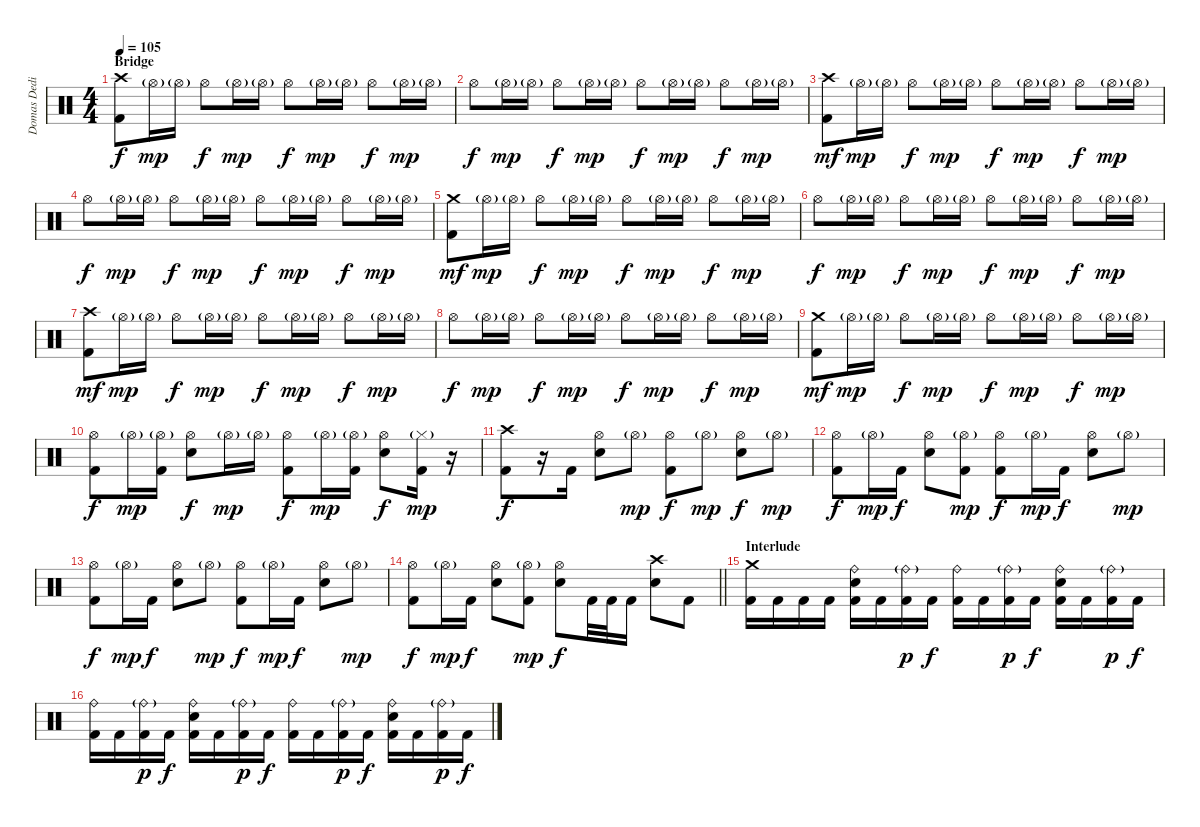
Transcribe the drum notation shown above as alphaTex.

\track ("Domas Dedinas" "Domas Dedi") {instrument percussion}
\staff {score}
\articulation defaults
\ts (4 4)
\section ("" "Bridge")
\tempo 105
\clef neutral
\ks c
("Crash high (hit)" "Kick (hit) 2").8{dy f} "Hi-Hat (open)"{g}.16{dy mp} "Hi-Hat (open)"{g}.16 "Hi-Hat (open)".8{dy f} "Hi-Hat (open)"{g}.16{dy mp} "Hi-Hat (open)"{g}.16 "Hi-Hat (open)".8{dy f} "Hi-Hat (open)"{g}.16{dy mp} "Hi-Hat (open)"{g}.16 "Hi-Hat (open)".8{dy f} "Hi-Hat (open)"{g}.16{dy mp} "Hi-Hat (open)"{g}.16 |
"Hi-Hat (open)".8{dy f} "Hi-Hat (open)"{g}.16{dy mp} "Hi-Hat (open)"{g}.16 "Hi-Hat (open)".8{dy f} "Hi-Hat (open)"{g}.16{dy mp} "Hi-Hat (open)"{g}.16 "Hi-Hat (open)".8{dy f} "Hi-Hat (open)"{g}.16{dy mp} "Hi-Hat (open)"{g}.16 "Hi-Hat (open)".8{dy f} "Hi-Hat (open)"{g}.16{dy mp} "Hi-Hat (open)"{g}.16 |
("Crash high (hit)" "Kick (hit) 2").8{dy mf} "Hi-Hat (open)"{g}.16{dy mp} "Hi-Hat (open)"{g}.16 "Hi-Hat (open)".8{dy f} "Hi-Hat (open)"{g}.16{dy mp} "Hi-Hat (open)"{g}.16 "Hi-Hat (open)".8{dy f} "Hi-Hat (open)"{g}.16{dy mp} "Hi-Hat (open)"{g}.16 "Hi-Hat (open)".8{dy f} "Hi-Hat (open)"{g}.16{dy mp} "Hi-Hat (open)"{g}.16 |
"Hi-Hat (open)".8{dy f} "Hi-Hat (open)"{g}.16{dy mp} "Hi-Hat (open)"{g}.16 "Hi-Hat (open)".8{dy f} "Hi-Hat (open)"{g}.16{dy mp} "Hi-Hat (open)"{g}.16 "Hi-Hat (open)".8{dy f} "Hi-Hat (open)"{g}.16{dy mp} "Hi-Hat (open)"{g}.16 "Hi-Hat (open)".8{dy f} "Hi-Hat (open)"{g}.16{dy mp} "Hi-Hat (open)"{g}.16 |
("Crash medium (hit)" "Kick (hit) 2").8{dy mf} "Hi-Hat (open)"{g}.16{dy mp} "Hi-Hat (open)"{g}.16 "Hi-Hat (open)".8{dy f} "Hi-Hat (open)"{g}.16{dy mp} "Hi-Hat (open)"{g}.16 "Hi-Hat (open)".8{dy f} "Hi-Hat (open)"{g}.16{dy mp} "Hi-Hat (open)"{g}.16 "Hi-Hat (open)".8{dy f} "Hi-Hat (open)"{g}.16{dy mp} "Hi-Hat (open)"{g}.16 |
"Hi-Hat (open)".8{dy f} "Hi-Hat (open)"{g}.16{dy mp} "Hi-Hat (open)"{g}.16 "Hi-Hat (open)".8{dy f} "Hi-Hat (open)"{g}.16{dy mp} "Hi-Hat (open)"{g}.16 "Hi-Hat (open)".8{dy f} "Hi-Hat (open)"{g}.16{dy mp} "Hi-Hat (open)"{g}.16 "Hi-Hat (open)".8{dy f} "Hi-Hat (open)"{g}.16{dy mp} "Hi-Hat (open)"{g}.16 |
("Crash high (hit)" "Kick (hit) 2").8{dy mf} "Hi-Hat (open)"{g}.16{dy mp} "Hi-Hat (open)"{g}.16 "Hi-Hat (open)".8{dy f} "Hi-Hat (open)"{g}.16{dy mp} "Hi-Hat (open)"{g}.16 "Hi-Hat (open)".8{dy f} "Hi-Hat (open)"{g}.16{dy mp} "Hi-Hat (open)"{g}.16 "Hi-Hat (open)".8{dy f} "Hi-Hat (open)"{g}.16{dy mp} "Hi-Hat (open)"{g}.16 |
"Hi-Hat (open)".8{dy f} "Hi-Hat (open)"{g}.16{dy mp} "Hi-Hat (open)"{g}.16 "Hi-Hat (open)".8{dy f} "Hi-Hat (open)"{g}.16{dy mp} "Hi-Hat (open)"{g}.16 "Hi-Hat (open)".8{dy f} "Hi-Hat (open)"{g}.16{dy mp} "Hi-Hat (open)"{g}.16 "Hi-Hat (open)".8{dy f} "Hi-Hat (open)"{g}.16{dy mp} "Hi-Hat (open)"{g}.16 |
("Crash medium (hit)" "Kick (hit) 2").8{dy mf} "Hi-Hat (open)"{g}.16{dy mp} "Hi-Hat (open)"{g}.16 "Hi-Hat (open)".8{dy f} "Hi-Hat (open)"{g}.16{dy mp} "Hi-Hat (open)"{g}.16 "Hi-Hat (open)".8{dy f} "Hi-Hat (open)"{g}.16{dy mp} "Hi-Hat (open)"{g}.16 "Hi-Hat (open)".8{dy f} "Hi-Hat (open)"{g}.16{dy mp} "Hi-Hat (open)"{g}.16 |
("Hi-Hat (open)" "Kick (hit) 2").8{dy f} "Hi-Hat (open)"{g}.16{dy mp} ("Hi-Hat (open)"{g} "Kick (hit) 2").16 ("Hi-Hat (open)" "Snare (hit) 2").8{dy f} "Hi-Hat (open)"{g}.16{dy mp} "Hi-Hat (open)"{g}.16 ("Hi-Hat (open)" "Kick (hit) 2").8{dy f} "Hi-Hat (open)"{g}.16{dy mp} ("Hi-Hat (open)"{g} "Kick (hit) 2").16 ("Hi-Hat (open)" "Snare (hit) 2").8{dy f} ("Hi-Hat (closed)"{g} "Kick (hit) 2").16{dy mp} r.16 |
("Crash high (hit)" "Kick (hit) 2").8{dy f} r.16 "Kick (hit) 2".16 ("Hi-Hat (open)" "Snare (hit) 2").8 "Hi-Hat (open)"{g}.8{dy mp} ("Hi-Hat (open)" "Kick (hit) 2").8{dy f} "Hi-Hat (open)"{g}.8{dy mp} ("Hi-Hat (open)" "Snare (hit) 2").8{dy f} "Hi-Hat (open)"{g}.8{dy mp} |
("Hi-Hat (open)" "Kick (hit) 2").8{dy f} "Hi-Hat (open)"{g}.16{dy mp} "Kick (hit) 2".16{dy f} ("Hi-Hat (open)" "Snare (hit) 2").8 ("Hi-Hat (open)"{g} "Kick (hit) 2").8{dy mp} ("Hi-Hat (open)" "Kick (hit) 2").8{dy f} "Hi-Hat (open)"{g}.16{dy mp} "Kick (hit) 2".16{dy f} ("Hi-Hat (open)" "Snare (hit) 2").8 "Hi-Hat (open)"{g}.8{dy mp} |
("Hi-Hat (open)" "Kick (hit) 2").8{dy f} "Hi-Hat (open)"{g}.16{dy mp} "Kick (hit) 2".16{dy f} ("Hi-Hat (open)" "Snare (hit) 2").8 "Hi-Hat (open)"{g}.8{dy mp} ("Hi-Hat (open)" "Kick (hit) 2").8{dy f} "Hi-Hat (open)"{g}.16{dy mp} "Kick (hit) 2".16{dy f} ("Hi-Hat (open)" "Snare (hit) 2").8 "Hi-Hat (open)"{g}.8{dy mp} |
\barLineRight lightlight
("Hi-Hat (open)" "Kick (hit) 2").8{dy f} "Hi-Hat (open)"{g}.16{dy mp} "Kick (hit) 2".16{dy f} ("Hi-Hat (open)" "Snare (hit) 2").8 ("Hi-Hat (open)"{g} "Kick (hit) 2").8{dy mp} ("Hi-Hat (open)" "Snare (hit) 2").8{dy f} "Kick (hit) 2".32 "Kick (hit) 2".32 "Kick (hit) 2".16 ("Crash high (hit)" "Snare (hit) 2").8 "Kick (hit) 2".8 |
\section ("" "Interlude")
("Crash medium (hit)" "Kick (hit) 2").16 "Kick (hit) 2".16 "Kick (hit) 2".16 "Kick (hit) 2".16 ("Ride (bell)" "Snare (hit) 2" "Kick (hit) 2").16 "Kick (hit) 2".16 ("Ride (bell)"{g} "Kick (hit) 2").16{dy p} "Kick (hit) 2".16{dy f} ("Ride (bell)" "Kick (hit) 2").16 "Kick (hit) 2".16 ("Ride (bell)"{g} "Kick (hit) 2").16{dy p} "Kick (hit) 2".16{dy f} ("Ride (bell)" "Snare (hit) 2" "Kick (hit) 2").16 "Kick (hit) 2".16 ("Ride (bell)"{g} "Kick (hit) 2").16{dy p} "Kick (hit) 2".16{dy f} |
("Ride (bell)" "Kick (hit) 2").16 "Kick (hit) 2".16 ("Ride (bell)"{g} "Kick (hit) 2").16{dy p} "Kick (hit) 2".16{dy f} ("Ride (bell)" "Snare (hit) 2" "Kick (hit) 2").16 "Kick (hit) 2".16 ("Ride (bell)"{g} "Kick (hit) 2").16{dy p} "Kick (hit) 2".16{dy f} ("Ride (bell)" "Kick (hit) 2").16 "Kick (hit) 2".16 ("Ride (bell)"{g} "Kick (hit) 2").16{dy p} "Kick (hit) 2".16{dy f} ("Ride (bell)" "Snare (hit) 2" "Kick (hit) 2").16 "Kick (hit) 2".16 ("Ride (bell)"{g} "Kick (hit) 2").16{dy p} "Kick (hit) 2".16{dy f}
